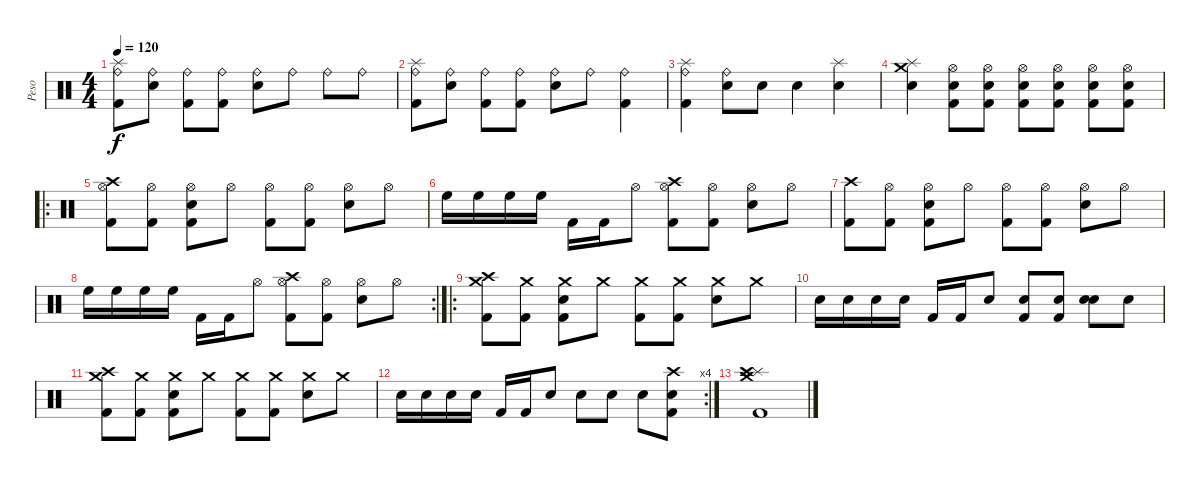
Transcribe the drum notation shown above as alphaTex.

\track ("Peso" "Peso") {instrument percussion}
\staff {score}
\articulation defaults
\ts (4 4)
\tempo 120
\clef neutral
\ks c
("Splash (hit)" "Ride (bell)" "Kick (hit) 2").8{dy f} ("Ride (bell)" "Snare (hit) 2").8 ("Ride (bell)" "Kick (hit) 2").8 ("Ride (bell)" "Kick (hit) 2").8 ("Ride (bell)" "Snare (hit) 2").8 "Ride (bell)".8 "Ride (bell)".8 "Ride (bell)".8 |
("Splash (hit)" "Ride (bell)" "Kick (hit) 2").8 ("Ride (bell)" "Snare (hit) 2").8 ("Ride (bell)" "Kick (hit) 2").8 ("Ride (bell)" "Kick (hit) 2").8 ("Ride (bell)" "Snare (hit) 2").8 "Ride (bell)".8 ("Ride (bell)" "Kick (hit) 2").4 |
("Splash (hit)" "Ride (bell)" "Kick (hit) 2").4 ("Ride (bell)" "Snare (hit) 2").8 "Snare (hit) 2".8 "Snare (hit) 2".4 ("Splash (hit)" "Snare (hit) 2").4 |
("Splash (hit)" "Crash medium (hit)" "Snare (hit) 2").4 ("Hi-Hat (open)" "Snare (hit) 2" "Kick (hit) 2").8 ("Hi-Hat (open)" "Snare (hit) 2" "Kick (hit) 2").8 ("Hi-Hat (open)" "Snare (hit) 2" "Kick (hit) 2").8 ("Hi-Hat (open)" "Snare (hit) 2" "Kick (hit) 2").8 ("Hi-Hat (open)" "Snare (hit) 2" "Kick (hit) 2").8 ("Hi-Hat (open)" "Snare (hit) 2" "Kick (hit) 2").8 |
\ro
("Crash high (hit)" "Hi-Hat (open)" "Kick (hit) 2").8 ("Hi-Hat (open)" "Kick (hit) 2").8 ("Hi-Hat (open)" "Snare (hit) 2" "Kick (hit) 2").8 "Hi-Hat (open)".8 ("Hi-Hat (open)" "Kick (hit) 2").8 ("Hi-Hat (open)" "Kick (hit) 2").8 ("Hi-Hat (open)" "Snare (hit) 2").8 "Hi-Hat (open)".8 |
"High Floor Tom (hit)".16 "High Floor Tom (hit)".16 "High Floor Tom (hit)".16 "High Floor Tom (hit)".16 "Kick (hit) 2".16 "Kick (hit) 2".16 "Hi-Hat (open)".8 ("Crash high (hit)" "Hi-Hat (open)" "Kick (hit) 2").8 ("Hi-Hat (open)" "Kick (hit) 2").8 ("Hi-Hat (open)" "Snare (hit) 2").8 "Hi-Hat (open)".8 |
("Crash high (hit)" "Kick (hit) 2").8 ("Hi-Hat (open)" "Kick (hit) 2").8 ("Hi-Hat (open)" "Snare (hit) 2" "Kick (hit) 2").8 "Hi-Hat (open)".8 ("Hi-Hat (open)" "Kick (hit) 2").8 ("Hi-Hat (open)" "Kick (hit) 2").8 ("Hi-Hat (open)" "Snare (hit) 2").8 "Hi-Hat (open)".8 |
\rc 2 "High Floor Tom (hit)".16 "High Floor Tom (hit)".16 "High Floor Tom (hit)".16 "High Floor Tom (hit)".16 "Kick (hit) 2".16 "Kick (hit) 2".16 "Hi-Hat (open)".8
("Crash high (hit)" "Hi-Hat (open)" "Kick (hit) 2").8 ("Hi-Hat (open)" "Kick (hit) 2").8 ("Hi-Hat (open)" "Snare (hit) 2").8 "Hi-Hat (open)".8 |
\ro
("Crash high (hit)" "Crash medium (hit)" "Kick (hit) 2").8 ("Crash medium (hit)" "Kick (hit) 2").8 ("Crash medium (hit)" "Snare (hit) 2" "Kick (hit) 2").8 "Crash medium (hit)".8 ("Crash medium (hit)" "Kick (hit) 2").8 ("Crash medium (hit)" "Kick (hit) 2").8 ("Crash medium (hit)" "Snare (hit) 2").8 "Crash medium (hit)".8 |
"Snare (hit) 2".16 "Snare (hit) 2".16 "Snare (hit) 2".16 "Snare (hit) 2".16 "Kick (hit) 2".16 "Kick (hit) 2".16 "Snare (hit) 2".8 ("Snare (hit) 2" "Kick (hit) 2").8 ("Snare (hit) 2" "Kick (hit) 2").8 ("Snare (hit) 2" "Snare (hit) 2").8 "Snare (hit) 2".8 |
("Crash high (hit)" "Crash medium (hit)" "Kick (hit) 2").8 ("Crash medium (hit)" "Kick (hit) 2").8 ("Crash medium (hit)" "Snare (hit) 2" "Kick (hit) 2").8 "Crash medium (hit)".8 ("Crash medium (hit)" "Kick (hit) 2").8 ("Crash medium (hit)" "Kick (hit) 2").8 ("Crash medium (hit)" "Snare (hit) 2").8 "Crash medium (hit)".8 |
\rc 4 "Snare (hit) 2".16 "Snare (hit) 2".16 "Snare (hit) 2".16 "Snare (hit) 2".16 "Kick (hit) 2".16 "Kick (hit) 2".16 "Snare (hit) 2".8 "Snare (hit) 2".8 "Snare (hit) 2".8 "Snare (hit) 2".8
("Crash high (hit)" "Snare (hit) 2" "Kick (hit) 2").8 |
("Splash (hit)" "Crash medium (hit)" "Crash high (hit)" "Kick (hit) 2").1
